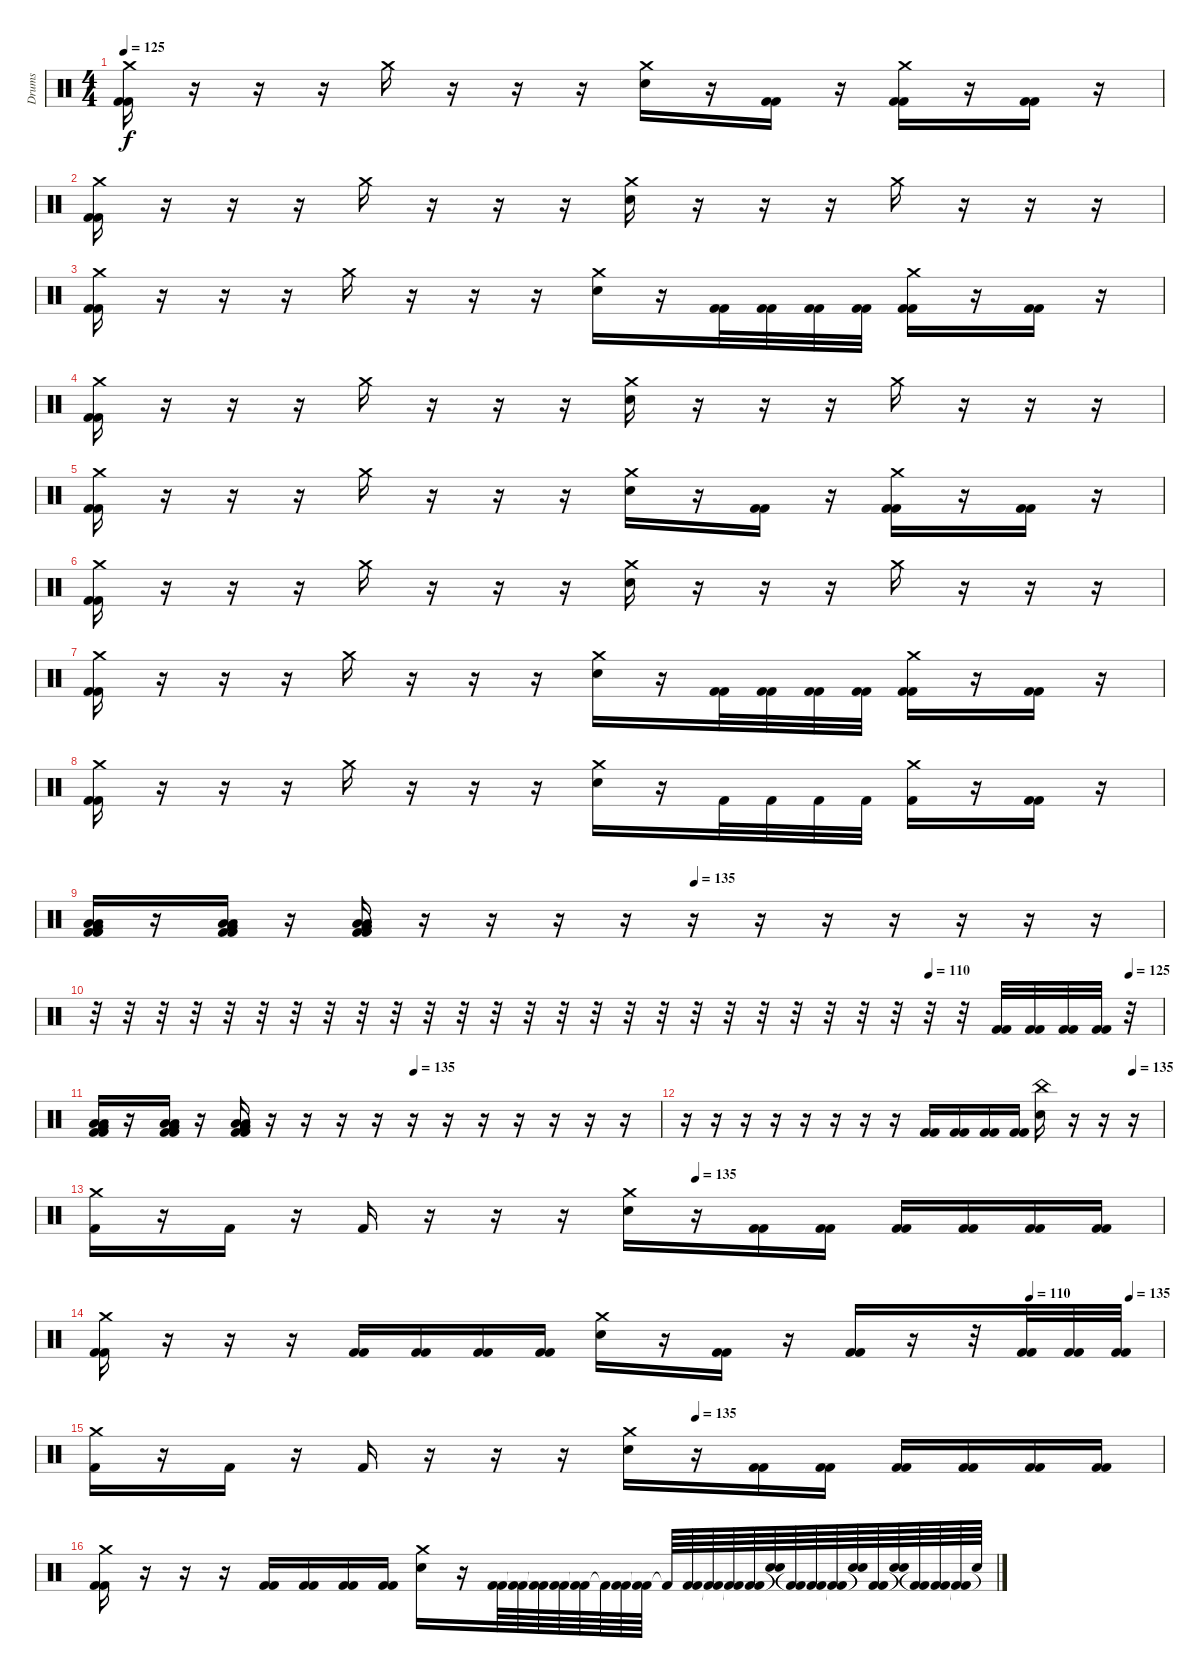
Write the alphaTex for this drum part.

\track ("Drums" "Drums") {instrument percussion}
\staff {score}
\articulation defaults
\ts (4 4)
\tempo 125
\clef neutral
\ks c
("Kick (hit) 2" "Crash medium (hit)" "Kick (hit) 2").16{dy f} r.16 r.16 r.16 "Crash medium (hit)".16 r.16 r.16 r.16 ("Crash medium (hit)" "Snare (hit) 2").16 r.16 ("Kick (hit) 2" "Kick (hit) 2").16 r.16 ("Kick (hit) 2" "Crash medium (hit)" "Kick (hit) 2").16 r.16 ("Kick (hit) 2" "Kick (hit) 2").16 r.16 |
("Kick (hit) 2" "Crash medium (hit)" "Kick (hit) 2").16 r.16 r.16 r.16 "Crash medium (hit)".16 r.16 r.16 r.16 ("Crash medium (hit)" "Snare (hit) 2").16 r.16 r.16 r.16 "Crash medium (hit)".16 r.16 r.16 r.16 |
("Kick (hit) 2" "Crash medium (hit)" "Kick (hit) 2").16 r.16 r.16 r.16 "Crash medium (hit)".16 r.16 r.16 r.16 ("Crash medium (hit)" "Snare (hit) 2").16 r.16 ("Kick (hit) 2" "Kick (hit) 2").32 ("Kick (hit) 2" "Kick (hit) 2").32 ("Kick (hit) 2" "Kick (hit) 2").32 ("Kick (hit) 2" "Kick (hit) 2").32 ("Kick (hit) 2" "Crash medium (hit)" "Kick (hit) 2").16 r.16 ("Kick (hit) 2" "Kick (hit) 2").16 r.16 |
("Kick (hit) 2" "Crash medium (hit)" "Kick (hit) 2").16 r.16 r.16 r.16 "Crash medium (hit)".16 r.16 r.16 r.16 ("Crash medium (hit)" "Snare (hit) 2").16 r.16 r.16 r.16 "Crash medium (hit)".16 r.16 r.16 r.16 |
("Kick (hit) 2" "Crash medium (hit)" "Kick (hit) 2").16 r.16 r.16 r.16 "Crash medium (hit)".16 r.16 r.16 r.16 ("Crash medium (hit)" "Snare (hit) 2").16 r.16 ("Kick (hit) 2" "Kick (hit) 2").16 r.16 ("Kick (hit) 2" "Crash medium (hit)" "Kick (hit) 2").16 r.16 ("Kick (hit) 2" "Kick (hit) 2").16 r.16 |
("Kick (hit) 2" "Crash medium (hit)" "Kick (hit) 2").16 r.16 r.16 r.16 "Crash medium (hit)".16 r.16 r.16 r.16 ("Crash medium (hit)" "Snare (hit) 2").16 r.16 r.16 r.16 "Crash medium (hit)".16 r.16 r.16 r.16 |
("Kick (hit) 2" "Crash medium (hit)" "Kick (hit) 2").16 r.16 r.16 r.16 "Crash medium (hit)".16 r.16 r.16 r.16 ("Crash medium (hit)" "Snare (hit) 2").16 r.16 ("Kick (hit) 2" "Kick (hit) 2").32 ("Kick (hit) 2" "Kick (hit) 2").32 ("Kick (hit) 2" "Kick (hit) 2").32 ("Kick (hit) 2" "Kick (hit) 2").32 ("Kick (hit) 2" "Crash medium (hit)" "Kick (hit) 2").16 r.16 ("Kick (hit) 2" "Kick (hit) 2").16 r.16 |
("Kick (hit) 2" "Crash medium (hit)" "Kick (hit) 2").16 r.16 r.16 r.16 "Crash medium (hit)".16 r.16 r.16 r.16 ("Crash medium (hit)" "Snare (hit) 2").16 r.16 "Kick (hit) 2".32 "Kick (hit) 2".32 "Kick (hit) 2".32 "Kick (hit) 2".32 ("Crash medium (hit)" "Kick (hit) 2").16 r.16 ("Kick (hit) 2" "Kick (hit) 2").16 r.16 |
\tempo (135 0.5625)
("Kick (hit) 2" "Low Floor Tom (hit)" "Low Floor Tom (hit)" "Very Low Tom (hit)" "Kick (hit) 2").16 r.16 ("Kick (hit) 2" "Low Floor Tom (hit)" "Low Floor Tom (hit)" "Very Low Tom (hit)" "Kick (hit) 2").16 r.16 ("Kick (hit) 2" "Low Floor Tom (hit)" "Low Floor Tom (hit)" "Very Low Tom (hit)" "Kick (hit) 2").16 r.16 r.16 r.16 r.16 r.16 r.16 r.16 r.16 r.16 r.16 r.16 |
\tempo (110 0.78125)
\tempo (125 0.96875)
r.32 r.32 r.32 r.32 r.32 r.32 r.32 r.32 r.32 r.32 r.32 r.32 r.32 r.32 r.32 r.32 r.32 r.32 r.32 r.32 r.32 r.32 r.32 r.32 r.32 r.32 r.32 ("Kick (hit) 2" "Kick (hit) 2").32 ("Kick (hit) 2" "Kick (hit) 2").32 ("Kick (hit) 2" "Kick (hit) 2").32 ("Kick (hit) 2" "Kick (hit) 2").32 r.32 |
\tempo (135 0.5625)
("Kick (hit) 2" "Low Floor Tom (hit)" "Low Floor Tom (hit)" "Very Low Tom (hit)" "Kick (hit) 2").16 r.16 ("Kick (hit) 2" "Low Floor Tom (hit)" "Low Floor Tom (hit)" "Very Low Tom (hit)" "Kick (hit) 2").16 r.16 ("Kick (hit) 2" "Low Floor Tom (hit)" "Low Floor Tom (hit)" "Very Low Tom (hit)" "Kick (hit) 2").16 r.16 r.16 r.16 r.16 r.16 r.16 r.16 r.16 r.16 r.16 r.16 |
\tempo (130 0.9375)
\tempo (135 0.9375)
r.16 r.16 r.16 r.16 r.16 r.16 r.16 r.16 ("Kick (hit) 2" "Kick (hit) 2").16 ("Kick (hit) 2" "Kick (hit) 2").16 ("Kick (hit) 2" "Kick (hit) 2").16 ("Kick (hit) 2" "Kick (hit) 2").16 ("China (hit)" "Snare (hit) 2").16 r.16 r.16 r.16 |
\tempo (135 0.5625)
("Crash medium (hit)" "Kick (hit) 2").16 r.16 "Kick (hit) 2".16 r.16 "Kick (hit) 2".16 r.16 r.16 r.16 ("Crash medium (hit)" "Snare (hit) 2").16 r.16 ("Kick (hit) 2" "Kick (hit) 2").16 ("Kick (hit) 2" "Kick (hit) 2").16 ("Kick (hit) 2" "Kick (hit) 2").16 ("Kick (hit) 2" "Kick (hit) 2").16 ("Kick (hit) 2" "Kick (hit) 2").16 ("Kick (hit) 2" "Kick (hit) 2").16 |
\tempo (110 0.875)
\tempo (135 0.96875)
("Kick (hit) 2" "Crash medium (hit)" "Kick (hit) 2").16 r.16 r.16 r.16 ("Kick (hit) 2" "Kick (hit) 2").16 ("Kick (hit) 2" "Kick (hit) 2").16 ("Kick (hit) 2" "Kick (hit) 2").16 ("Kick (hit) 2" "Kick (hit) 2").16 ("Crash medium (hit)" "Snare (hit) 2").16 r.16 ("Kick (hit) 2" "Kick (hit) 2").16 r.16 ("Kick (hit) 2" "Kick (hit) 2").16 r.16 r.32 ("Kick (hit) 2" "Kick (hit) 2").32 ("Kick (hit) 2" "Kick (hit) 2").32 ("Kick (hit) 2" "Kick (hit) 2").32 |
\tempo (135 0.5625)
("Crash medium (hit)" "Kick (hit) 2").16 r.16 "Kick (hit) 2".16 r.16 "Kick (hit) 2".16 r.16 r.16 r.16 ("Crash medium (hit)" "Snare (hit) 2").16 r.16 ("Kick (hit) 2" "Kick (hit) 2").16 ("Kick (hit) 2" "Kick (hit) 2").16 ("Kick (hit) 2" "Kick (hit) 2").16 ("Kick (hit) 2" "Kick (hit) 2").16 ("Kick (hit) 2" "Kick (hit) 2").16 ("Kick (hit) 2" "Kick (hit) 2").16 |
("Kick (hit) 2" "Crash medium (hit)" "Kick (hit) 2").16 r.16 r.16 r.16 ("Kick (hit) 2" "Kick (hit) 2").16 ("Kick (hit) 2" "Kick (hit) 2").16 ("Kick (hit) 2" "Kick (hit) 2").16 ("Kick (hit) 2" "Kick (hit) 2").16 ("Crash medium (hit)" "Snare (hit) 2").16 r.16 ("Kick (hit) 2" "Kick (hit) 2").64 ("Kick (hit) 2"{t} "Kick (hit) 2"{t}).64 ("Kick (hit) 2"{t} "Kick (hit) 2"{t}).64 ("Kick (hit) 2" "Kick (hit) 2").64 ("Kick (hit) 2"{t} "Kick (hit) 2"{t}).64 "Kick (hit) 2"{t}.64 ("Kick (hit) 2" "Kick (hit) 2").64 ("Kick (hit) 2"{t} "Kick (hit) 2"{t}).64 "Kick (hit) 2"{t}.64 ("Kick (hit) 2" "Kick (hit) 2").64 ("Kick (hit) 2"{t} "Kick (hit) 2"{t}).64 ("Kick (hit) 2"{t} "Kick (hit) 2"{t}).64 ("Kick (hit) 2" "Kick (hit) 2").64 ("Snare (hit)"{t} "Snare (hit)"{t}).64 ("Kick (hit) 2"{t} "Kick (hit) 2"{t}).64 ("Kick (hit) 2" "Kick (hit) 2").64 ("Kick (hit) 2"{t} "Kick (hit) 2"{t}).64 ("Snare (hit)"{t} "Snare (hit)"{t}).64 ("Kick (hit) 2" "Kick (hit) 2").64 ("Snare (hit)"{t} "Snare (hit)"{t}).64 ("Kick (hit) 2"{t} "Kick (hit) 2"{t}).64 ("Kick (hit) 2" "Kick (hit) 2").64 ("Kick (hit) 2"{t} "Kick (hit) 2"{t}).64 "Snare (hit)"{t}.64
